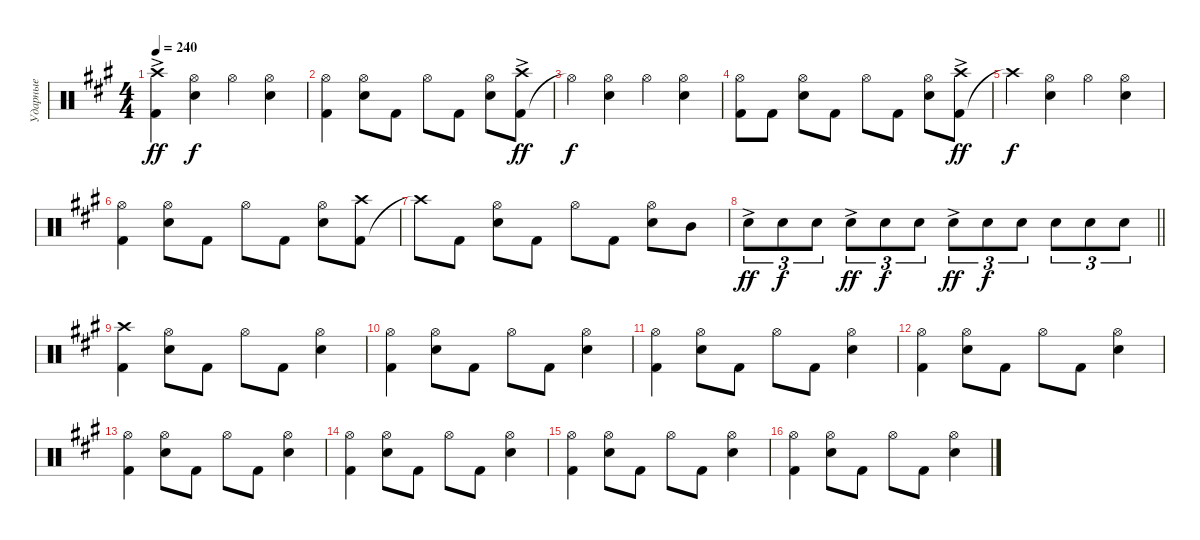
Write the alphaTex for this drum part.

\track ("Ударные" "Ударные") {instrument percussion}
\staff {score}
\articulation defaults
\ts (4 4)
\tempo 240
\clef neutral
\ks a
("Kick (hit) 2" "Crash high (hit)"{ac}).4{dy ff} ("Snare (hit) 2" "Hi-Hat (open)").4{dy f} "Hi-Hat (open)".4 ("Snare (hit) 2" "Hi-Hat (open)").4 |
("Kick (hit) 2" "Hi-Hat (open)").4 ("Snare (hit) 2" "Hi-Hat (open)").8 "Kick (hit) 2".8 "Hi-Hat (open)".8 "Kick (hit) 2".8 ("Snare (hit) 2" "Hi-Hat (open)").8 ("Kick (hit) 2" "Crash high (hit)"{ac}).8{dy ff} |
"Hi-Hat (open)"{t}.4{dy f} ("Snare (hit) 2" "Hi-Hat (open)").4 "Hi-Hat (open)".4 ("Snare (hit) 2" "Hi-Hat (open)").4 |
("Kick (hit) 2" "Hi-Hat (open)").8 "Kick (hit) 2".8 ("Snare (hit) 2" "Hi-Hat (open)").8 "Kick (hit) 2".8 "Hi-Hat (open)".8 "Kick (hit) 2".8 ("Snare (hit) 2" "Hi-Hat (open)").8 ("Kick (hit) 2" "Crash high (hit)"{ac}).8{dy ff} |
"Crash high (hit)"{t}.4{dy f} ("Snare (hit) 2" "Hi-Hat (open)").4 "Hi-Hat (open)".4 ("Snare (hit) 2" "Hi-Hat (open)").4 |
("Kick (hit) 2" "Hi-Hat (open)").4 ("Snare (hit) 2" "Hi-Hat (open)").8 "Kick (hit) 2".8 "Hi-Hat (open)".8 "Kick (hit) 2".8 ("Snare (hit) 2" "Hi-Hat (open)").8 ("Kick (hit) 2" "Crash high (hit)").8 |
"Crash high (hit)"{t}.8 "Kick (hit) 2".8 ("Snare (hit) 2" "Hi-Hat (open)").8 "Kick (hit) 2".8 "Hi-Hat (open)".8 "Kick (hit) 2".8 ("Snare (hit) 2" "Hi-Hat (open)").8 "Mid Tom (hit)".8 |
\barLineRight lightlight "Snare (hit) 2"{ac}.8{tu (3 2) dy ff} "Snare (hit) 2".8{tu (3 2) dy f} "Snare (hit) 2".8{tu (3 2)} "Snare (hit) 2"{ac}.8{tu (3 2) dy ff} "Snare (hit) 2".8{tu (3 2) dy f} "Snare (hit) 2".8{tu (3 2)} "Snare (hit) 2"{ac}.8{tu (3 2) dy ff} "Snare (hit) 2".8{tu (3 2) dy f} "Snare (hit) 2".8{tu (3 2)} "Snare (hit) 2".8{tu (3 2)} "Snare (hit) 2".8{tu (3 2)} "Snare (hit) 2".8{tu (3 2)}
|
("Kick (hit) 2" "Crash high (hit)").4 ("Snare (hit) 2" "Hi-Hat (open)").8 "Kick (hit) 2".8 "Hi-Hat (open)".8 "Kick (hit) 2".8 ("Snare (hit) 2" "Hi-Hat (open)").4 |
("Kick (hit) 2" "Hi-Hat (open)").4 ("Snare (hit) 2" "Hi-Hat (open)").8 "Kick (hit) 2".8 "Hi-Hat (open)".8 "Kick (hit) 2".8 ("Snare (hit) 2" "Hi-Hat (open)").4 |
("Kick (hit) 2" "Hi-Hat (open)").4 ("Snare (hit) 2" "Hi-Hat (open)").8 "Kick (hit) 2".8 "Hi-Hat (open)".8 "Kick (hit) 2".8 ("Snare (hit) 2" "Hi-Hat (open)").4 |
("Kick (hit) 2" "Hi-Hat (open)").4 ("Snare (hit) 2" "Hi-Hat (open)").8 "Kick (hit) 2".8 "Hi-Hat (open)".8 "Kick (hit) 2".8 ("Snare (hit) 2" "Hi-Hat (open)").4 |
("Kick (hit) 2" "Hi-Hat (open)").4 ("Snare (hit) 2" "Hi-Hat (open)").8 "Kick (hit) 2".8 "Hi-Hat (open)".8 "Kick (hit) 2".8 ("Snare (hit) 2" "Hi-Hat (open)").4 |
("Kick (hit) 2" "Hi-Hat (open)").4 ("Snare (hit) 2" "Hi-Hat (open)").8 "Kick (hit) 2".8 "Hi-Hat (open)".8 "Kick (hit) 2".8 ("Snare (hit) 2" "Hi-Hat (open)").4 |
("Kick (hit) 2" "Hi-Hat (open)").4 ("Snare (hit) 2" "Hi-Hat (open)").8 "Kick (hit) 2".8 "Hi-Hat (open)".8 "Kick (hit) 2".8 ("Snare (hit) 2" "Hi-Hat (open)").4 |
("Kick (hit) 2" "Hi-Hat (open)").4 ("Snare (hit) 2" "Hi-Hat (open)").8 "Kick (hit) 2".8 "Hi-Hat (open)".8 "Kick (hit) 2".8 ("Snare (hit) 2" "Hi-Hat (open)").4
